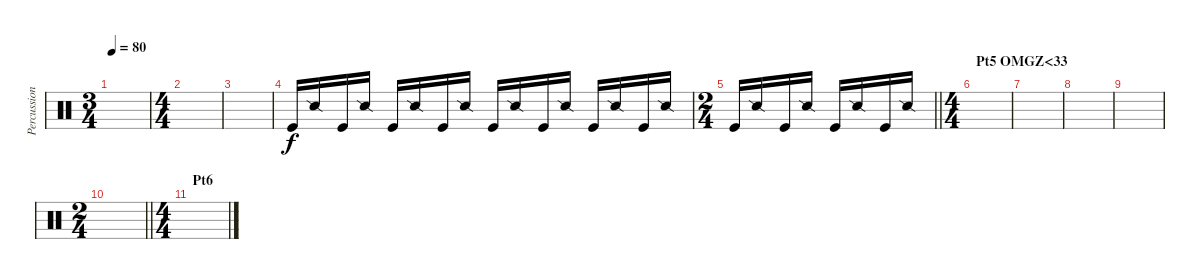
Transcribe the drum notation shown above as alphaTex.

\track ("Percussion" "Percussion") {instrument percussion}
\staff {score}
\articulation defaults
\ts (3 4)
\tempo 80
\clef neutral
\ks c
|
\ts (4 4)
|
|
"Kick (hit)".16 "Snare (side stick) 2".16 "Kick (hit)".16 "Snare (side stick) 2".16 "Kick (hit)".16 "Snare (side stick) 2".16 "Kick (hit)".16 "Snare (side stick) 2".16 "Kick (hit)".16 "Snare (side stick) 2".16 "Kick (hit)".16 "Snare (side stick) 2".16 "Kick (hit)".16 "Snare (side stick) 2".16 "Kick (hit)".16 "Snare (side stick) 2".16 |
\ts (2 4)
\barLineRight lightlight "Kick (hit)".16 "Snare (side stick) 2".16 "Kick (hit)".16 "Snare (side stick) 2".16 "Kick (hit)".16 "Snare (side stick) 2".16 "Kick (hit)".16 "Snare (side stick) 2".16
|
\ts (4 4)
\section ("" "Pt5 OMGZ<33")
|
|
|
|
\ts (2 4)
\barLineRight lightlight
|
\ts (4 4)
\section ("" "Pt6")
